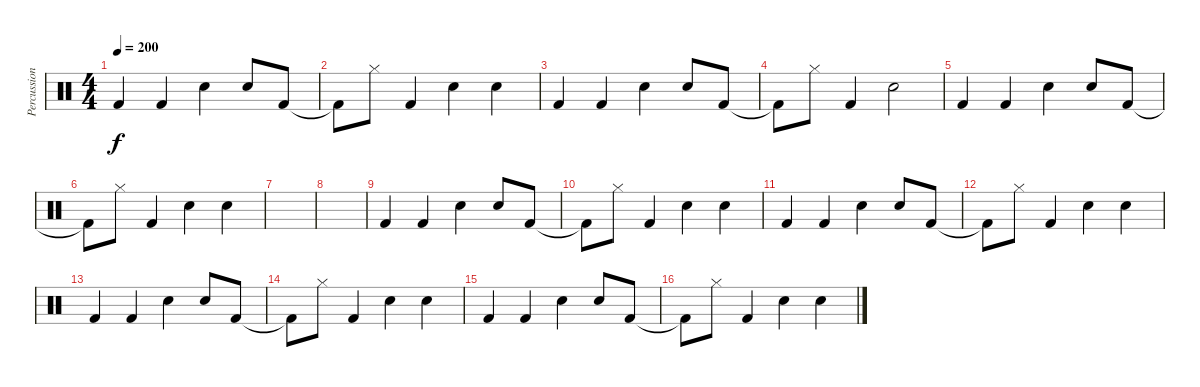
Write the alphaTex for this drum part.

\track ("Percussion" "Percussion") {instrument percussion}
\staff {score}
\articulation defaults
\ts (4 4)
\tempo 200
\clef neutral
\ks c "Kick (hit) 2".4{dy f} "Kick (hit) 2".4 "Hand Clap (hit)".4 "Hand Clap (hit)".8 "Kick (hit) 2".8
|
"Kick (hit) 2"{t}.8 "Hi-Hat (closed)".8 "Kick (hit) 2".4 "Hand Clap (hit)".4 "Hand Clap (hit)".4 |
"Kick (hit) 2".4 "Kick (hit) 2".4 "Hand Clap (hit)".4 "Hand Clap (hit)".8 "Kick (hit) 2".8 |
"Kick (hit) 2"{t}.8 "Hi-Hat (closed)".8 "Kick (hit) 2".4 "Hand Clap (hit)".2 |
"Kick (hit) 2".4 "Kick (hit) 2".4 "Hand Clap (hit)".4 "Hand Clap (hit)".8 "Kick (hit) 2".8 |
"Kick (hit) 2"{t}.8 "Hi-Hat (closed)".8 "Kick (hit) 2".4 "Hand Clap (hit)".4 "Hand Clap (hit)".4 |
|
|
"Kick (hit) 2".4 "Kick (hit) 2".4 "Hand Clap (hit)".4 "Hand Clap (hit)".8 "Kick (hit) 2".8 |
"Kick (hit) 2"{t}.8 "Hi-Hat (closed)".8 "Kick (hit) 2".4 "Hand Clap (hit)".4 "Hand Clap (hit)".4 |
"Kick (hit) 2".4 "Kick (hit) 2".4 "Hand Clap (hit)".4 "Hand Clap (hit)".8 "Kick (hit) 2".8 |
"Kick (hit) 2"{t}.8 "Hi-Hat (closed)".8 "Kick (hit) 2".4 "Hand Clap (hit)".4 "Hand Clap (hit)".4 |
"Kick (hit) 2".4 "Kick (hit) 2".4 "Hand Clap (hit)".4 "Hand Clap (hit)".8 "Kick (hit) 2".8 |
"Kick (hit) 2"{t}.8 "Hi-Hat (closed)".8 "Kick (hit) 2".4 "Hand Clap (hit)".4 "Hand Clap (hit)".4 |
"Kick (hit) 2".4 "Kick (hit) 2".4 "Hand Clap (hit)".4 "Hand Clap (hit)".8 "Kick (hit) 2".8 |
"Kick (hit) 2"{t}.8 "Hi-Hat (closed)".8 "Kick (hit) 2".4 "Hand Clap (hit)".4 "Hand Clap (hit)".4
